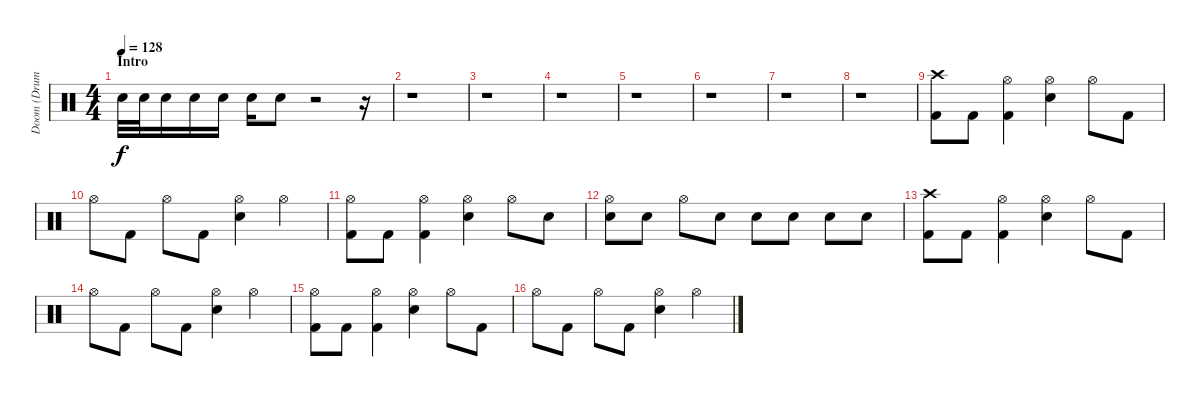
\track ("Doom (Drums)" "Doom (Drum") {instrument percussion}
\staff {score}
\articulation defaults
\ts (4 4)
\section ("" "Intro")
\tempo 128
\clef neutral
\ks c "Electric Snare (hit)".32{dy f} "Electric Snare (hit)".32 "Electric Snare (hit)".16 "Electric Snare (hit)".16 "Electric Snare (hit)".16 "Electric Snare (hit)".16 "Electric Snare (hit)".8
r.2 r.16 |
r.1 |
r.1 |
r.1 |
r.1 |
r.1 |
r.1 |
r.1 |
("Crash high (hit)" "Kick (hit) 2").8 "Kick (hit) 2".8 ("Hi-Hat (open)" "Kick (hit) 2").4 ("Hi-Hat (open)" "Electric Snare (hit)").4 "Hi-Hat (open)".8 "Kick (hit) 2".8 |
"Hi-Hat (open)".8 "Kick (hit) 2".8 "Hi-Hat (open)".8 "Kick (hit) 2".8 ("Hi-Hat (open)" "Electric Snare (hit)").4 "Hi-Hat (open)".4 |
("Hi-Hat (open)" "Kick (hit) 2").8 "Kick (hit) 2".8 ("Hi-Hat (open)" "Kick (hit) 2").4 ("Hi-Hat (open)" "Electric Snare (hit)").4 "Hi-Hat (open)".8 "Electric Snare (hit)".8 |
("Hi-Hat (open)" "Electric Snare (hit)").8 "Electric Snare (hit)".8 "Hi-Hat (open)".8 "Electric Snare (hit)".8 "Electric Snare (hit)".8 "Electric Snare (hit)".8 "Electric Snare (hit)".8 "Electric Snare (hit)".8 |
("Crash high (hit)" "Kick (hit) 2").8 "Kick (hit) 2".8 ("Hi-Hat (open)" "Kick (hit) 2").4 ("Hi-Hat (open)" "Electric Snare (hit)").4 "Hi-Hat (open)".8 "Kick (hit) 2".8 |
"Hi-Hat (open)".8 "Kick (hit) 2".8 "Hi-Hat (open)".8 "Kick (hit) 2".8 ("Hi-Hat (open)" "Electric Snare (hit)").4 "Hi-Hat (open)".4 |
("Hi-Hat (open)" "Kick (hit) 2").8 "Kick (hit) 2".8 ("Hi-Hat (open)" "Kick (hit) 2").4 ("Hi-Hat (open)" "Electric Snare (hit)").4 "Hi-Hat (open)".8 "Kick (hit) 2".8 |
"Hi-Hat (open)".8 "Kick (hit) 2".8 "Hi-Hat (open)".8 "Kick (hit) 2".8 ("Hi-Hat (open)" "Electric Snare (hit)").4 "Hi-Hat (open)".4
